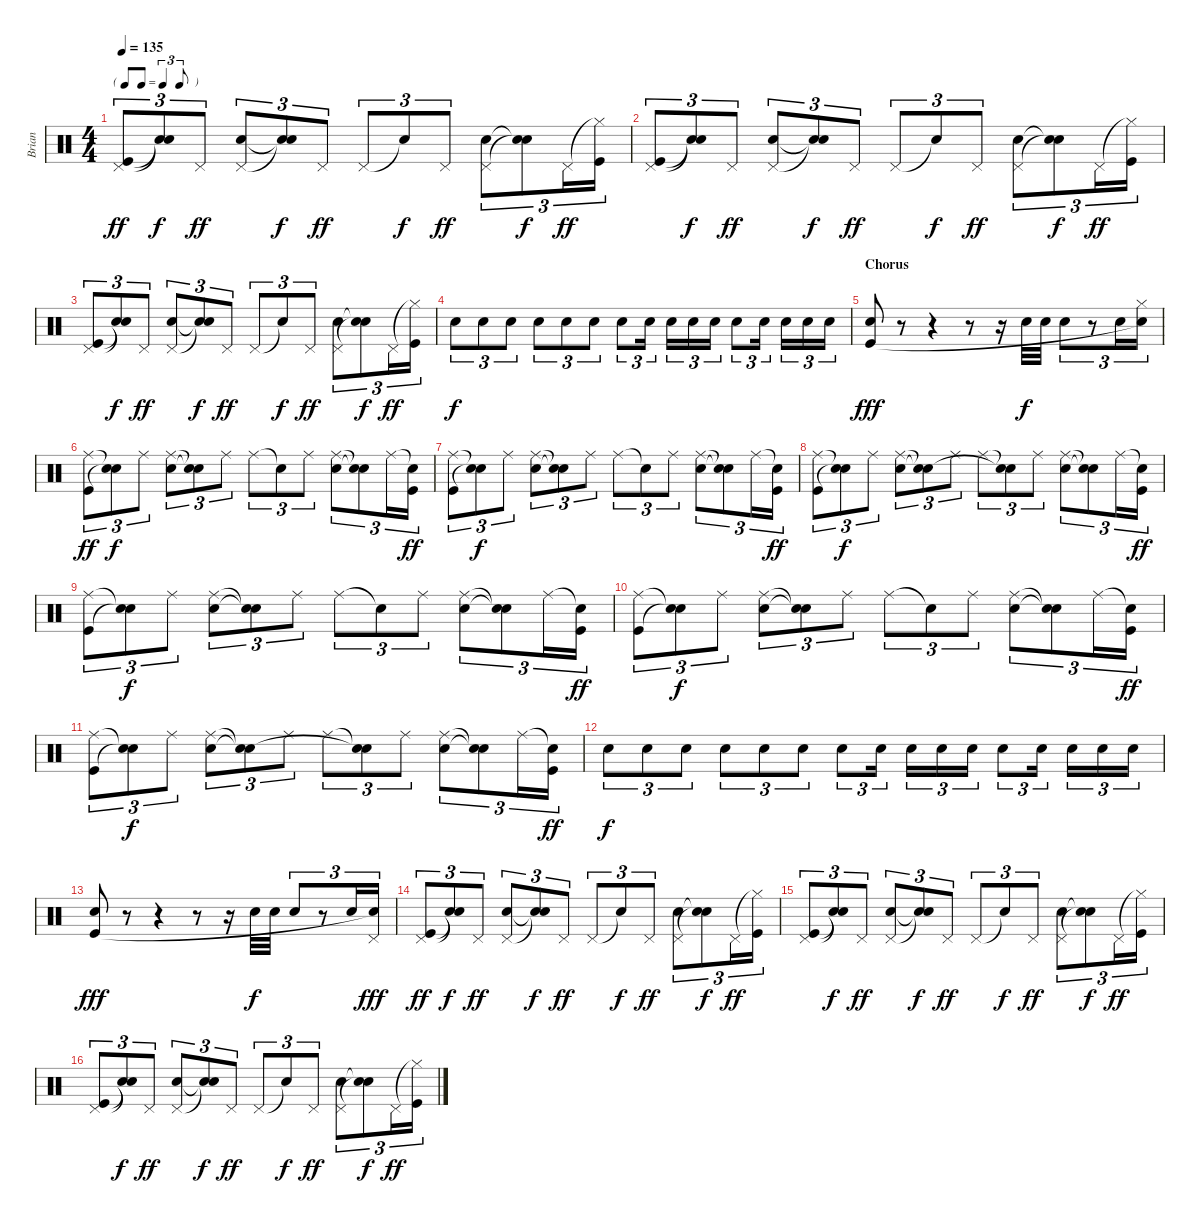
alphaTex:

\track ("Brian" "Brian") {instrument percussion}
\staff {score}
\articulation defaults
\ts (4 4)
\tf triplet8th
\tempo 135
\clef neutral
\ks c
("Pedal Hi-Hat (hit)" "Kick (hit)").8{tu (3 2) dy ff} ("Snare (hit)"{t} "Snare (hit)"{t}).8{tu (3 2) dy f} "Pedal Hi-Hat (hit)".8{tu (3 2) dy ff} ("Pedal Hi-Hat (hit)" "Snare (hit) 2").8{tu (3 2)} ("Snare (hit)"{t} "Snare (hit)"{t}).8{tu (3 2) dy f} "Pedal Hi-Hat (hit)".8{tu (3 2) dy ff} "Pedal Hi-Hat (hit)".8{tu (3 2)} "Snare (hit)"{t}.8{tu (3 2) dy f} "Pedal Hi-Hat (hit)".8{tu (3 2) dy ff} ("Pedal Hi-Hat (hit)" "Snare (hit) 2").8{tu (3 2)} ("Snare (hit)"{t} "Snare (hit)"{t}).8{tu (3 2) dy f} "Pedal Hi-Hat (hit)".16{tu (3 2) dy ff} ("Hi-Hat (closed)"{t} "Kick (hit)").16{tu (3 2)} |
("Pedal Hi-Hat (hit)" "Kick (hit)").8{tu (3 2)} ("Snare (hit)"{t} "Snare (hit)"{t}).8{tu (3 2) dy f} "Pedal Hi-Hat (hit)".8{tu (3 2) dy ff} ("Pedal Hi-Hat (hit)" "Snare (hit) 2").8{tu (3 2)} ("Snare (hit)"{t} "Snare (hit)"{t}).8{tu (3 2) dy f} "Pedal Hi-Hat (hit)".8{tu (3 2) dy ff} "Pedal Hi-Hat (hit)".8{tu (3 2)} "Snare (hit)"{t}.8{tu (3 2) dy f} "Pedal Hi-Hat (hit)".8{tu (3 2) dy ff} ("Pedal Hi-Hat (hit)" "Snare (hit) 2").8{tu (3 2)} ("Snare (hit)"{t} "Snare (hit)"{t}).8{tu (3 2) dy f} "Pedal Hi-Hat (hit)".16{tu (3 2) dy ff} ("Hi-Hat (closed)"{t} "Kick (hit)").16{tu (3 2)} |
("Pedal Hi-Hat (hit)" "Kick (hit)").8{tu (3 2)} ("Snare (hit)"{t} "Snare (hit)"{t}).8{tu (3 2) dy f} "Pedal Hi-Hat (hit)".8{tu (3 2) dy ff} ("Pedal Hi-Hat (hit)" "Snare (hit) 2").8{tu (3 2)} ("Snare (hit)"{t} "Snare (hit)"{t}).8{tu (3 2) dy f} "Pedal Hi-Hat (hit)".8{tu (3 2) dy ff} "Pedal Hi-Hat (hit)".8{tu (3 2)} "Snare (hit)"{t}.8{tu (3 2) dy f} "Pedal Hi-Hat (hit)".8{tu (3 2) dy ff} ("Pedal Hi-Hat (hit)" "Snare (hit) 2").8{tu (3 2)} ("Snare (hit)"{t} "Snare (hit)"{t}).8{tu (3 2) dy f} "Pedal Hi-Hat (hit)".16{tu (3 2) dy ff} ("Hi-Hat (closed)"{t} "Kick (hit)").16{tu (3 2)} |
"Snare (hit) 2".8{tu (3 2) dy f} "Snare (hit) 2".8{tu (3 2)} "Snare (hit) 2".8{tu (3 2)} "Snare (hit) 2".8{tu (3 2)} "Snare (hit) 2".8{tu (3 2)} "Snare (hit) 2".8{tu (3 2)} "Snare (hit) 2".8{tu (3 2)} "Snare (hit) 2".16{tu (3 2)} "Snare (hit) 2".16{tu (3 2)} "Snare (hit) 2".16{tu (3 2)} "Snare (hit) 2".16{tu (3 2)} "Snare (hit) 2".8{tu (3 2)} "Snare (hit) 2".16{tu (3 2)} "Snare (hit) 2".16{tu (3 2)} "Snare (hit) 2".16{tu (3 2)} "Snare (hit) 2".16{tu (3 2)} |
\section ("" "Chorus")
("Snare (hit) 2" "Kick (hit)").8{dy fff} r.8 r.4 r.8 r.16 "Snare (hit) 2".32{dy f} "Snare (hit) 2".32 "Snare (hit) 2".8{tu (3 2)} r.8{tu (3 2)} "Snare (hit) 2".16{tu (3 2)} ("Hi-Hat (closed)" "Snare (hit)"{t}).16{tu (3 2)} |
("Ride (middle)" "Kick (hit)").8{tu (3 2) dy ff} ("Snare (hit)"{t} "Snare (hit)"{t}).8{tu (3 2) dy f} "Ride (middle)".8{tu (3 2)} ("Ride (middle)" "Snare (hit) 2").8{tu (3 2)} ("Snare (hit)"{t} "Snare (hit)"{t}).8{tu (3 2)} "Ride (middle)".8{tu (3 2)} "Ride (middle)".8{tu (3 2)} "Snare (hit)"{t}.8{tu (3 2)} "Ride (middle)".8{tu (3 2)} ("Ride (middle)" "Snare (hit) 2").8{tu (3 2)} ("Snare (hit)"{t} "Snare (hit)"{t}).8{tu (3 2)} "Ride (middle)".16{tu (3 2)} ("Snare (hit)"{t} "Kick (hit)").16{tu (3 2) dy ff} |
("Ride (middle)" "Kick (hit)").8{tu (3 2)} ("Snare (hit)"{t} "Snare (hit)"{t}).8{tu (3 2) dy f} "Ride (middle)".8{tu (3 2)} ("Ride (middle)" "Snare (hit) 2").8{tu (3 2)} ("Snare (hit)"{t} "Snare (hit)"{t}).8{tu (3 2)} "Ride (middle)".8{tu (3 2)} "Ride (middle)".8{tu (3 2)} "Snare (hit)"{t}.8{tu (3 2)} "Ride (middle)".8{tu (3 2)} ("Ride (middle)" "Snare (hit) 2").8{tu (3 2)} ("Snare (hit)"{t} "Snare (hit)"{t}).8{tu (3 2)} "Ride (middle)".16{tu (3 2)} ("Snare (hit)"{t} "Kick (hit)").16{tu (3 2) dy ff} |
("Ride (middle)" "Kick (hit)").8{tu (3 2)} ("Snare (hit)"{t} "Snare (hit)"{t}).8{tu (3 2) dy f} "Ride (middle)".8{tu (3 2)} ("Ride (middle)" "Snare (hit) 2").8{tu (3 2)} ("Snare (hit)"{t} "Snare (hit)"{t}).8{tu (3 2)} "Ride (middle)".8{tu (3 2)} "Ride (middle)".8{tu (3 2)} ("Snare (hit)"{t} "Snare (hit)"{t}).8{tu (3 2)} "Ride (middle)".8{tu (3 2)} ("Ride (middle)" "Snare (hit) 2").8{tu (3 2)} ("Snare (hit)"{t} "Snare (hit)"{t}).8{tu (3 2)} "Ride (middle)".16{tu (3 2)} ("Snare (hit)"{t} "Kick (hit)").16{tu (3 2) dy ff} |
("Ride (middle)" "Kick (hit)").8{tu (3 2)} ("Snare (hit)"{t} "Snare (hit)"{t}).8{tu (3 2) dy f} "Ride (middle)".8{tu (3 2)} ("Ride (middle)" "Snare (hit) 2").8{tu (3 2)} ("Snare (hit)"{t} "Snare (hit)"{t}).8{tu (3 2)} "Ride (middle)".8{tu (3 2)} "Ride (middle)".8{tu (3 2)} "Snare (hit)"{t}.8{tu (3 2)} "Ride (middle)".8{tu (3 2)} ("Ride (middle)" "Snare (hit) 2").8{tu (3 2)} ("Snare (hit)"{t} "Snare (hit)"{t}).8{tu (3 2)} "Ride (middle)".16{tu (3 2)} ("Snare (hit)"{t} "Kick (hit)").16{tu (3 2) dy ff} |
("Ride (middle)" "Kick (hit)").8{tu (3 2)} ("Snare (hit)"{t} "Snare (hit)"{t}).8{tu (3 2) dy f} "Ride (middle)".8{tu (3 2)} ("Ride (middle)" "Snare (hit) 2").8{tu (3 2)} ("Snare (hit)"{t} "Snare (hit)"{t}).8{tu (3 2)} "Ride (middle)".8{tu (3 2)} "Ride (middle)".8{tu (3 2)} "Snare (hit)"{t}.8{tu (3 2)} "Ride (middle)".8{tu (3 2)} ("Ride (middle)" "Snare (hit) 2").8{tu (3 2)} ("Snare (hit)"{t} "Snare (hit)"{t}).8{tu (3 2)} "Ride (middle)".16{tu (3 2)} ("Snare (hit)"{t} "Kick (hit)").16{tu (3 2) dy ff} |
("Ride (middle)" "Kick (hit)").8{tu (3 2)} ("Snare (hit)"{t} "Snare (hit)"{t}).8{tu (3 2) dy f} "Ride (middle)".8{tu (3 2)} ("Ride (middle)" "Snare (hit) 2").8{tu (3 2)} ("Snare (hit)"{t} "Snare (hit)"{t}).8{tu (3 2)} "Ride (middle)".8{tu (3 2)} "Ride (middle)".8{tu (3 2)} ("Snare (hit)"{t} "Snare (hit)"{t}).8{tu (3 2)} "Ride (middle)".8{tu (3 2)} ("Ride (middle)" "Snare (hit) 2").8{tu (3 2)} ("Snare (hit)"{t} "Snare (hit)"{t}).8{tu (3 2)} "Ride (middle)".16{tu (3 2)} ("Snare (hit)"{t} "Kick (hit)").16{tu (3 2) dy ff} |
"Snare (hit) 2".8{tu (3 2) dy f} "Snare (hit) 2".8{tu (3 2)} "Snare (hit) 2".8{tu (3 2)} "Snare (hit) 2".8{tu (3 2)} "Snare (hit) 2".8{tu (3 2)} "Snare (hit) 2".8{tu (3 2)} "Snare (hit) 2".8{tu (3 2)} "Snare (hit) 2".16{tu (3 2)} "Snare (hit) 2".16{tu (3 2)} "Snare (hit) 2".16{tu (3 2)} "Snare (hit) 2".16{tu (3 2)} "Snare (hit) 2".8{tu (3 2)} "Snare (hit) 2".16{tu (3 2)} "Snare (hit) 2".16{tu (3 2)} "Snare (hit) 2".16{tu (3 2)} "Snare (hit) 2".16{tu (3 2)} |
("Snare (hit) 2" "Kick (hit)").8{dy fff} r.8 r.4 r.8 r.16 "Snare (hit) 2".32{dy f} "Snare (hit) 2".32 "Snare (hit) 2".8{tu (3 2)} r.8{tu (3 2)} "Snare (hit) 2".16{tu (3 2)} ("Pedal Hi-Hat (hit)" "Snare (hit)"{t}).16{tu (3 2) dy fff} |
("Pedal Hi-Hat (hit)" "Kick (hit)").8{tu (3 2) dy ff} ("Snare (hit)"{t} "Snare (hit)"{t}).8{tu (3 2) dy f} "Pedal Hi-Hat (hit)".8{tu (3 2) dy ff} ("Pedal Hi-Hat (hit)" "Snare (hit) 2").8{tu (3 2)} ("Snare (hit)"{t} "Snare (hit)"{t}).8{tu (3 2) dy f} "Pedal Hi-Hat (hit)".8{tu (3 2) dy ff} "Pedal Hi-Hat (hit)".8{tu (3 2)} "Snare (hit)"{t}.8{tu (3 2) dy f} "Pedal Hi-Hat (hit)".8{tu (3 2) dy ff} ("Pedal Hi-Hat (hit)" "Snare (hit) 2").8{tu (3 2)} ("Snare (hit)"{t} "Snare (hit)"{t}).8{tu (3 2) dy f} "Pedal Hi-Hat (hit)".16{tu (3 2) dy ff} ("Hi-Hat (closed)"{t} "Kick (hit)").16{tu (3 2)} |
("Pedal Hi-Hat (hit)" "Kick (hit)").8{tu (3 2)} ("Snare (hit)"{t} "Snare (hit)"{t}).8{tu (3 2) dy f} "Pedal Hi-Hat (hit)".8{tu (3 2) dy ff} ("Pedal Hi-Hat (hit)" "Snare (hit) 2").8{tu (3 2)} ("Snare (hit)"{t} "Snare (hit)"{t}).8{tu (3 2) dy f} "Pedal Hi-Hat (hit)".8{tu (3 2) dy ff} "Pedal Hi-Hat (hit)".8{tu (3 2)} "Snare (hit)"{t}.8{tu (3 2) dy f} "Pedal Hi-Hat (hit)".8{tu (3 2) dy ff} ("Pedal Hi-Hat (hit)" "Snare (hit) 2").8{tu (3 2)} ("Snare (hit)"{t} "Snare (hit)"{t}).8{tu (3 2) dy f} "Pedal Hi-Hat (hit)".16{tu (3 2) dy ff} ("Hi-Hat (closed)"{t} "Kick (hit)").16{tu (3 2)} |
("Pedal Hi-Hat (hit)" "Kick (hit)").8{tu (3 2)} ("Snare (hit)"{t} "Snare (hit)"{t}).8{tu (3 2) dy f} "Pedal Hi-Hat (hit)".8{tu (3 2) dy ff} ("Pedal Hi-Hat (hit)" "Snare (hit) 2").8{tu (3 2)} ("Snare (hit)"{t} "Snare (hit)"{t}).8{tu (3 2) dy f} "Pedal Hi-Hat (hit)".8{tu (3 2) dy ff} "Pedal Hi-Hat (hit)".8{tu (3 2)} "Snare (hit)"{t}.8{tu (3 2) dy f} "Pedal Hi-Hat (hit)".8{tu (3 2) dy ff} ("Pedal Hi-Hat (hit)" "Snare (hit) 2").8{tu (3 2)} ("Snare (hit)"{t} "Snare (hit)"{t}).8{tu (3 2) dy f} "Pedal Hi-Hat (hit)".16{tu (3 2) dy ff} ("Hi-Hat (closed)"{t} "Kick (hit)").16{tu (3 2)}
